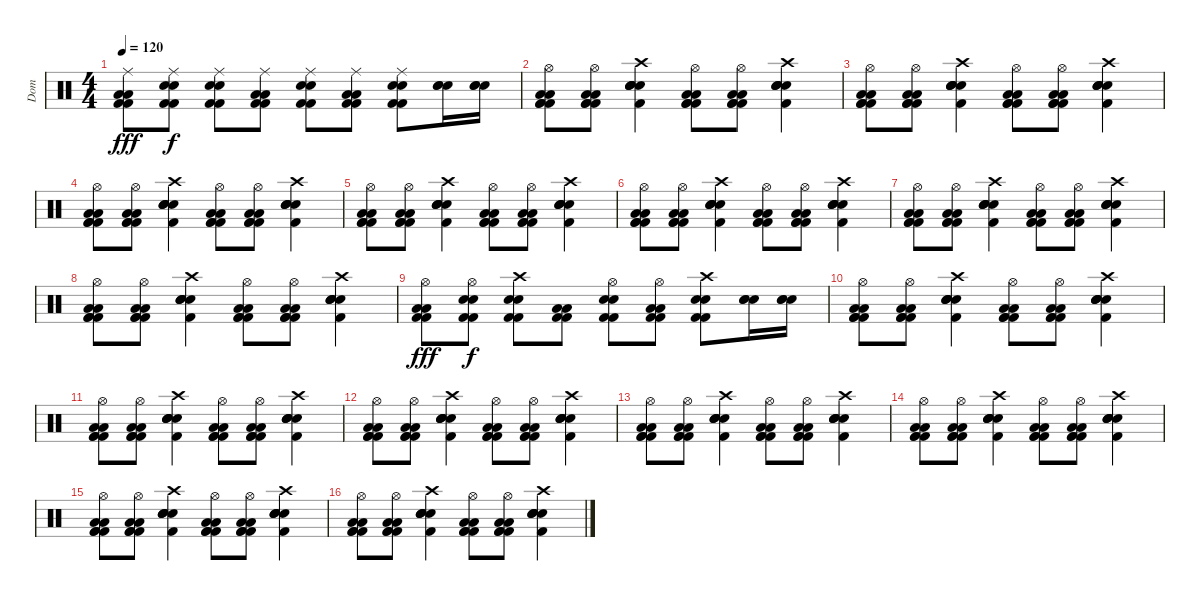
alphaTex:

\track ("Dom" "Dom") {instrument percussion}
\staff {score}
\articulation defaults
\ts (4 4)
\tempo 120
\clef neutral
\ks c
("Ride (middle)" "Low Floor Tom (hit)" "Low Floor Tom (hit)" "Kick (hit) 2" "Kick (hit) 2").8{dy fff} ("Ride (middle)" "Electric Snare (hit)" "Electric Snare (hit)" "Kick (hit) 2" "Kick (hit) 2").8{dy f} ("Ride (middle)" "Electric Snare (hit)" "Electric Snare (hit)" "Kick (hit) 2" "Kick (hit) 2").8 ("Ride (middle)" "Low Floor Tom (hit)" "Low Floor Tom (hit)" "Kick (hit) 2" "Kick (hit) 2").8 ("Ride (middle)" "Electric Snare (hit)" "Electric Snare (hit)" "Kick (hit) 2" "Kick (hit) 2").8 ("Ride (middle)" "Low Floor Tom (hit)" "Low Floor Tom (hit)" "Kick (hit) 2" "Kick (hit) 2").8 ("Ride (middle)" "Electric Snare (hit)" "Electric Snare (hit)" "Kick (hit) 2" "Kick (hit) 2").8 ("Electric Snare (hit)" "Electric Snare (hit)" "Electric Snare (hit)").16 ("Electric Snare (hit)" "Electric Snare (hit)" "Electric Snare (hit)").16 |
("Hi-Hat (open)" "Low Floor Tom (hit)" "Low Floor Tom (hit)" "Kick (hit) 2" "Kick (hit) 2" "Kick (hit) 2").8 ("Hi-Hat (open)" "Low Floor Tom (hit)" "Low Floor Tom (hit)" "Kick (hit) 2" "Kick (hit) 2" "Kick (hit) 2").8 ("Crash high (hit)" "Electric Snare (hit)" "Electric Snare (hit)" "Electric Snare (hit)" "Electric Snare (hit)" "Kick (hit) 2").4 ("Hi-Hat (open)" "Low Floor Tom (hit)" "Low Floor Tom (hit)" "Kick (hit) 2" "Kick (hit) 2" "Kick (hit) 2").8 ("Hi-Hat (open)" "Low Floor Tom (hit)" "Low Floor Tom (hit)" "Kick (hit) 2" "Kick (hit) 2" "Kick (hit) 2").8 ("Crash high (hit)" "Electric Snare (hit)" "Electric Snare (hit)" "Electric Snare (hit)" "Electric Snare (hit)" "Kick (hit) 2").4 |
("Hi-Hat (open)" "Low Floor Tom (hit)" "Low Floor Tom (hit)" "Kick (hit) 2" "Kick (hit) 2" "Kick (hit) 2").8 ("Hi-Hat (open)" "Low Floor Tom (hit)" "Low Floor Tom (hit)" "Kick (hit) 2" "Kick (hit) 2" "Kick (hit) 2").8 ("Crash high (hit)" "Electric Snare (hit)" "Electric Snare (hit)" "Electric Snare (hit)" "Electric Snare (hit)" "Kick (hit) 2").4 ("Hi-Hat (open)" "Low Floor Tom (hit)" "Low Floor Tom (hit)" "Kick (hit) 2" "Kick (hit) 2" "Kick (hit) 2").8 ("Hi-Hat (open)" "Low Floor Tom (hit)" "Low Floor Tom (hit)" "Kick (hit) 2" "Kick (hit) 2" "Kick (hit) 2").8 ("Crash high (hit)" "Electric Snare (hit)" "Electric Snare (hit)" "Electric Snare (hit)" "Electric Snare (hit)" "Kick (hit) 2").4 |
("Hi-Hat (open)" "Low Floor Tom (hit)" "Low Floor Tom (hit)" "Kick (hit) 2" "Kick (hit) 2" "Kick (hit) 2").8 ("Hi-Hat (open)" "Low Floor Tom (hit)" "Low Floor Tom (hit)" "Kick (hit) 2" "Kick (hit) 2" "Kick (hit) 2").8 ("Crash high (hit)" "Electric Snare (hit)" "Electric Snare (hit)" "Electric Snare (hit)" "Electric Snare (hit)" "Kick (hit) 2").4 ("Hi-Hat (open)" "Low Floor Tom (hit)" "Low Floor Tom (hit)" "Kick (hit) 2" "Kick (hit) 2" "Kick (hit) 2").8 ("Hi-Hat (open)" "Low Floor Tom (hit)" "Low Floor Tom (hit)" "Kick (hit) 2" "Kick (hit) 2" "Kick (hit) 2").8 ("Crash high (hit)" "Electric Snare (hit)" "Electric Snare (hit)" "Electric Snare (hit)" "Electric Snare (hit)" "Kick (hit) 2").4 |
("Hi-Hat (open)" "Low Floor Tom (hit)" "Low Floor Tom (hit)" "Kick (hit) 2" "Kick (hit) 2" "Kick (hit) 2").8 ("Hi-Hat (open)" "Low Floor Tom (hit)" "Low Floor Tom (hit)" "Kick (hit) 2" "Kick (hit) 2" "Kick (hit) 2").8 ("Crash high (hit)" "Electric Snare (hit)" "Electric Snare (hit)" "Electric Snare (hit)" "Electric Snare (hit)" "Kick (hit) 2").4 ("Hi-Hat (open)" "Low Floor Tom (hit)" "Low Floor Tom (hit)" "Kick (hit) 2" "Kick (hit) 2" "Kick (hit) 2").8 ("Hi-Hat (open)" "Low Floor Tom (hit)" "Low Floor Tom (hit)" "Kick (hit) 2" "Kick (hit) 2" "Kick (hit) 2").8 ("Crash high (hit)" "Electric Snare (hit)" "Electric Snare (hit)" "Electric Snare (hit)" "Electric Snare (hit)" "Kick (hit) 2").4 |
("Hi-Hat (open)" "Low Floor Tom (hit)" "Low Floor Tom (hit)" "Kick (hit) 2" "Kick (hit) 2" "Kick (hit) 2").8 ("Hi-Hat (open)" "Low Floor Tom (hit)" "Low Floor Tom (hit)" "Kick (hit) 2" "Kick (hit) 2" "Kick (hit) 2").8 ("Crash high (hit)" "Electric Snare (hit)" "Electric Snare (hit)" "Electric Snare (hit)" "Electric Snare (hit)" "Kick (hit) 2").4 ("Hi-Hat (open)" "Low Floor Tom (hit)" "Low Floor Tom (hit)" "Kick (hit) 2" "Kick (hit) 2" "Kick (hit) 2").8 ("Hi-Hat (open)" "Low Floor Tom (hit)" "Low Floor Tom (hit)" "Kick (hit) 2" "Kick (hit) 2" "Kick (hit) 2").8 ("Crash high (hit)" "Electric Snare (hit)" "Electric Snare (hit)" "Electric Snare (hit)" "Electric Snare (hit)" "Kick (hit) 2").4 |
("Hi-Hat (open)" "Low Floor Tom (hit)" "Low Floor Tom (hit)" "Kick (hit) 2" "Kick (hit) 2" "Kick (hit) 2").8 ("Hi-Hat (open)" "Low Floor Tom (hit)" "Low Floor Tom (hit)" "Kick (hit) 2" "Kick (hit) 2" "Kick (hit) 2").8 ("Crash high (hit)" "Electric Snare (hit)" "Electric Snare (hit)" "Electric Snare (hit)" "Electric Snare (hit)" "Kick (hit) 2").4 ("Hi-Hat (open)" "Low Floor Tom (hit)" "Low Floor Tom (hit)" "Kick (hit) 2" "Kick (hit) 2" "Kick (hit) 2").8 ("Hi-Hat (open)" "Low Floor Tom (hit)" "Low Floor Tom (hit)" "Kick (hit) 2" "Kick (hit) 2" "Kick (hit) 2").8 ("Crash high (hit)" "Electric Snare (hit)" "Electric Snare (hit)" "Electric Snare (hit)" "Electric Snare (hit)" "Kick (hit) 2").4 |
("Hi-Hat (open)" "Low Floor Tom (hit)" "Low Floor Tom (hit)" "Kick (hit) 2" "Kick (hit) 2" "Kick (hit) 2").8 ("Hi-Hat (open)" "Low Floor Tom (hit)" "Low Floor Tom (hit)" "Kick (hit) 2" "Kick (hit) 2" "Kick (hit) 2").8 ("Crash high (hit)" "Electric Snare (hit)" "Electric Snare (hit)" "Electric Snare (hit)" "Electric Snare (hit)" "Kick (hit) 2").4 ("Hi-Hat (open)" "Low Floor Tom (hit)" "Low Floor Tom (hit)" "Kick (hit) 2" "Kick (hit) 2" "Kick (hit) 2").8 ("Hi-Hat (open)" "Low Floor Tom (hit)" "Low Floor Tom (hit)" "Kick (hit) 2" "Kick (hit) 2" "Kick (hit) 2").8 ("Crash high (hit)" "Electric Snare (hit)" "Electric Snare (hit)" "Electric Snare (hit)" "Electric Snare (hit)" "Kick (hit) 2").4 |
("Hi-Hat (open)" "Low Floor Tom (hit)" "Low Floor Tom (hit)" "Kick (hit) 2" "Kick (hit) 2").8{dy fff} ("Hi-Hat (open)" "Electric Snare (hit)" "Electric Snare (hit)" "Kick (hit) 2" "Kick (hit) 2").8{dy f} ("Crash high (hit)" "Electric Snare (hit)" "Electric Snare (hit)" "Kick (hit) 2" "Kick (hit) 2").8 ("Low Floor Tom (hit)" "Low Floor Tom (hit)" "Kick (hit) 2" "Kick (hit) 2").8 ("Hi-Hat (open)" "Electric Snare (hit)" "Electric Snare (hit)" "Kick (hit) 2" "Kick (hit) 2").8 ("Hi-Hat (open)" "Low Floor Tom (hit)" "Low Floor Tom (hit)" "Kick (hit) 2" "Kick (hit) 2").8 ("Crash high (hit)" "Electric Snare (hit)" "Electric Snare (hit)" "Kick (hit) 2" "Kick (hit) 2").8 ("Electric Snare (hit)" "Electric Snare (hit)" "Electric Snare (hit)").16 ("Electric Snare (hit)" "Electric Snare (hit)" "Electric Snare (hit)").16 |
("Hi-Hat (open)" "Low Floor Tom (hit)" "Low Floor Tom (hit)" "Kick (hit) 2" "Kick (hit) 2" "Kick (hit) 2").8 ("Hi-Hat (open)" "Low Floor Tom (hit)" "Low Floor Tom (hit)" "Kick (hit) 2" "Kick (hit) 2" "Kick (hit) 2").8 ("Crash high (hit)" "Electric Snare (hit)" "Electric Snare (hit)" "Electric Snare (hit)" "Electric Snare (hit)" "Kick (hit) 2").4 ("Hi-Hat (open)" "Low Floor Tom (hit)" "Low Floor Tom (hit)" "Kick (hit) 2" "Kick (hit) 2" "Kick (hit) 2").8 ("Hi-Hat (open)" "Low Floor Tom (hit)" "Low Floor Tom (hit)" "Kick (hit) 2" "Kick (hit) 2" "Kick (hit) 2").8 ("Crash high (hit)" "Electric Snare (hit)" "Electric Snare (hit)" "Electric Snare (hit)" "Electric Snare (hit)" "Kick (hit) 2").4 |
("Hi-Hat (open)" "Low Floor Tom (hit)" "Low Floor Tom (hit)" "Kick (hit) 2" "Kick (hit) 2" "Kick (hit) 2").8 ("Hi-Hat (open)" "Low Floor Tom (hit)" "Low Floor Tom (hit)" "Kick (hit) 2" "Kick (hit) 2" "Kick (hit) 2").8 ("Crash high (hit)" "Electric Snare (hit)" "Electric Snare (hit)" "Electric Snare (hit)" "Electric Snare (hit)" "Kick (hit) 2").4 ("Hi-Hat (open)" "Low Floor Tom (hit)" "Low Floor Tom (hit)" "Kick (hit) 2" "Kick (hit) 2" "Kick (hit) 2").8 ("Hi-Hat (open)" "Low Floor Tom (hit)" "Low Floor Tom (hit)" "Kick (hit) 2" "Kick (hit) 2" "Kick (hit) 2").8 ("Crash high (hit)" "Electric Snare (hit)" "Electric Snare (hit)" "Electric Snare (hit)" "Electric Snare (hit)" "Kick (hit) 2").4 |
("Hi-Hat (open)" "Low Floor Tom (hit)" "Low Floor Tom (hit)" "Kick (hit) 2" "Kick (hit) 2" "Kick (hit) 2").8 ("Hi-Hat (open)" "Low Floor Tom (hit)" "Low Floor Tom (hit)" "Kick (hit) 2" "Kick (hit) 2" "Kick (hit) 2").8 ("Crash high (hit)" "Electric Snare (hit)" "Electric Snare (hit)" "Electric Snare (hit)" "Electric Snare (hit)" "Kick (hit) 2").4 ("Hi-Hat (open)" "Low Floor Tom (hit)" "Low Floor Tom (hit)" "Kick (hit) 2" "Kick (hit) 2" "Kick (hit) 2").8 ("Hi-Hat (open)" "Low Floor Tom (hit)" "Low Floor Tom (hit)" "Kick (hit) 2" "Kick (hit) 2" "Kick (hit) 2").8 ("Crash high (hit)" "Electric Snare (hit)" "Electric Snare (hit)" "Electric Snare (hit)" "Electric Snare (hit)" "Kick (hit) 2").4 |
("Hi-Hat (open)" "Low Floor Tom (hit)" "Low Floor Tom (hit)" "Kick (hit) 2" "Kick (hit) 2" "Kick (hit) 2").8 ("Hi-Hat (open)" "Low Floor Tom (hit)" "Low Floor Tom (hit)" "Kick (hit) 2" "Kick (hit) 2" "Kick (hit) 2").8 ("Crash high (hit)" "Electric Snare (hit)" "Electric Snare (hit)" "Electric Snare (hit)" "Electric Snare (hit)" "Kick (hit) 2").4 ("Hi-Hat (open)" "Low Floor Tom (hit)" "Low Floor Tom (hit)" "Kick (hit) 2" "Kick (hit) 2" "Kick (hit) 2").8 ("Hi-Hat (open)" "Low Floor Tom (hit)" "Low Floor Tom (hit)" "Kick (hit) 2" "Kick (hit) 2" "Kick (hit) 2").8 ("Crash high (hit)" "Electric Snare (hit)" "Electric Snare (hit)" "Electric Snare (hit)" "Electric Snare (hit)" "Kick (hit) 2").4 |
("Hi-Hat (open)" "Low Floor Tom (hit)" "Low Floor Tom (hit)" "Kick (hit) 2" "Kick (hit) 2" "Kick (hit) 2").8 ("Hi-Hat (open)" "Low Floor Tom (hit)" "Low Floor Tom (hit)" "Kick (hit) 2" "Kick (hit) 2" "Kick (hit) 2").8 ("Crash high (hit)" "Electric Snare (hit)" "Electric Snare (hit)" "Electric Snare (hit)" "Electric Snare (hit)" "Kick (hit) 2").4 ("Hi-Hat (open)" "Low Floor Tom (hit)" "Low Floor Tom (hit)" "Kick (hit) 2" "Kick (hit) 2" "Kick (hit) 2").8 ("Hi-Hat (open)" "Low Floor Tom (hit)" "Low Floor Tom (hit)" "Kick (hit) 2" "Kick (hit) 2" "Kick (hit) 2").8 ("Crash high (hit)" "Electric Snare (hit)" "Electric Snare (hit)" "Electric Snare (hit)" "Electric Snare (hit)" "Kick (hit) 2").4 |
("Hi-Hat (open)" "Low Floor Tom (hit)" "Low Floor Tom (hit)" "Kick (hit) 2" "Kick (hit) 2" "Kick (hit) 2").8 ("Hi-Hat (open)" "Low Floor Tom (hit)" "Low Floor Tom (hit)" "Kick (hit) 2" "Kick (hit) 2" "Kick (hit) 2").8 ("Crash high (hit)" "Electric Snare (hit)" "Electric Snare (hit)" "Electric Snare (hit)" "Electric Snare (hit)" "Kick (hit) 2").4 ("Hi-Hat (open)" "Low Floor Tom (hit)" "Low Floor Tom (hit)" "Kick (hit) 2" "Kick (hit) 2" "Kick (hit) 2").8 ("Hi-Hat (open)" "Low Floor Tom (hit)" "Low Floor Tom (hit)" "Kick (hit) 2" "Kick (hit) 2" "Kick (hit) 2").8 ("Crash high (hit)" "Electric Snare (hit)" "Electric Snare (hit)" "Electric Snare (hit)" "Electric Snare (hit)" "Kick (hit) 2").4 |
("Hi-Hat (open)" "Low Floor Tom (hit)" "Low Floor Tom (hit)" "Kick (hit) 2" "Kick (hit) 2" "Kick (hit) 2").8 ("Hi-Hat (open)" "Low Floor Tom (hit)" "Low Floor Tom (hit)" "Kick (hit) 2" "Kick (hit) 2" "Kick (hit) 2").8 ("Crash high (hit)" "Electric Snare (hit)" "Electric Snare (hit)" "Electric Snare (hit)" "Electric Snare (hit)" "Kick (hit) 2").4 ("Hi-Hat (open)" "Low Floor Tom (hit)" "Low Floor Tom (hit)" "Kick (hit) 2" "Kick (hit) 2" "Kick (hit) 2").8 ("Hi-Hat (open)" "Low Floor Tom (hit)" "Low Floor Tom (hit)" "Kick (hit) 2" "Kick (hit) 2" "Kick (hit) 2").8 ("Crash high (hit)" "Electric Snare (hit)" "Electric Snare (hit)" "Electric Snare (hit)" "Electric Snare (hit)" "Kick (hit) 2").4
